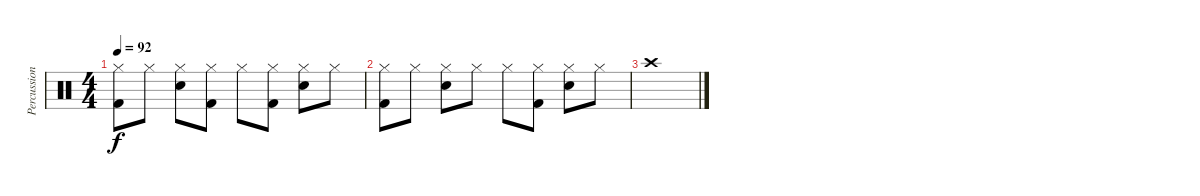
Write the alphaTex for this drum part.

\track ("Percussion" "Percussion") {instrument percussion}
\staff {score}
\articulation defaults
\ts (4 4)
\tempo 92
\clef neutral
\ks c
("Hi-Hat (closed)" "Kick (hit) 2").8{dy f} "Hi-Hat (closed)".8 ("Hi-Hat (closed)" "Snare (hit) 2").8 ("Hi-Hat (closed)" "Kick (hit) 2").8 "Hi-Hat (closed)".8 ("Hi-Hat (closed)" "Kick (hit) 2").8 ("Hi-Hat (closed)" "Snare (hit) 2").8 "Hi-Hat (closed)".8 |
("Hi-Hat (closed)" "Kick (hit) 2").8 "Hi-Hat (closed)".8 ("Hi-Hat (closed)" "Snare (hit) 2").8 "Hi-Hat (closed)".8 "Hi-Hat (closed)".8 ("Hi-Hat (closed)" "Kick (hit) 2").8 ("Hi-Hat (closed)" "Snare (hit) 2").8 "Hi-Hat (closed)".8 |
"Crash high (hit)".1
